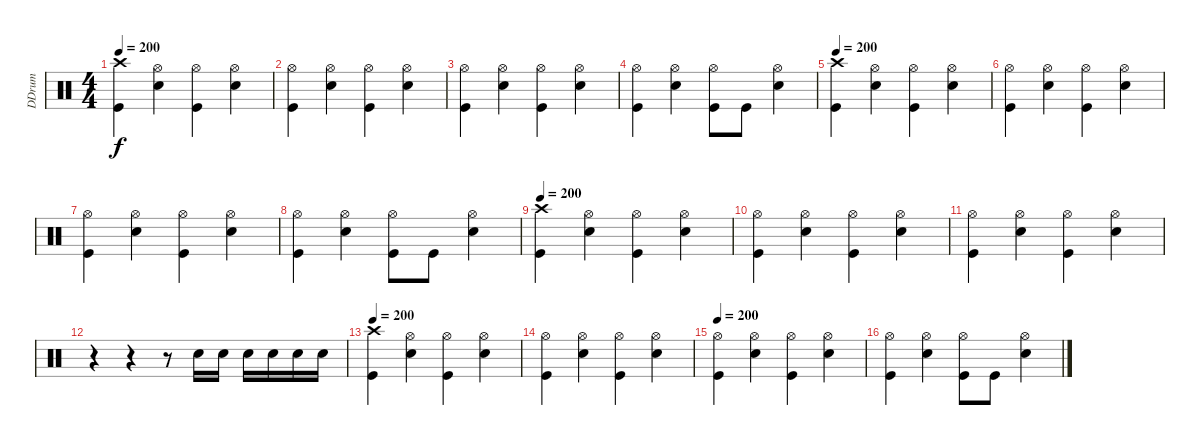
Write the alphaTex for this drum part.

\track ("DDrum" "DDrum") {instrument percussion}
\staff {score}
\articulation defaults
\ts (4 4)
\tempo 200
\clef neutral
\ks c
("Crash high (hit)" "Kick (hit)").4{dy f} ("Hi-Hat (open)" "Electric Snare (hit)").4 ("Hi-Hat (open)" "Kick (hit)").4 ("Hi-Hat (open)" "Electric Snare (hit)").4 |
("Hi-Hat (open)" "Kick (hit)").4 ("Hi-Hat (open)" "Electric Snare (hit)").4 ("Hi-Hat (open)" "Kick (hit)").4 ("Hi-Hat (open)" "Electric Snare (hit)").4 |
("Hi-Hat (open)" "Kick (hit)").4 ("Hi-Hat (open)" "Electric Snare (hit)").4 ("Hi-Hat (open)" "Kick (hit)").4 ("Hi-Hat (open)" "Electric Snare (hit)").4 |
("Hi-Hat (open)" "Kick (hit)").4 ("Hi-Hat (open)" "Electric Snare (hit)").4 ("Hi-Hat (open)" "Kick (hit)").8 "Kick (hit)".8 ("Hi-Hat (open)" "Electric Snare (hit)").4 |
\tempo 200
("Crash high (hit)" "Kick (hit)").4 ("Hi-Hat (open)" "Electric Snare (hit)").4 ("Hi-Hat (open)" "Kick (hit)").4 ("Hi-Hat (open)" "Electric Snare (hit)").4 |
("Hi-Hat (open)" "Kick (hit)").4 ("Hi-Hat (open)" "Electric Snare (hit)").4 ("Hi-Hat (open)" "Kick (hit)").4 ("Hi-Hat (open)" "Electric Snare (hit)").4 |
("Hi-Hat (open)" "Kick (hit)").4 ("Hi-Hat (open)" "Electric Snare (hit)").4 ("Hi-Hat (open)" "Kick (hit)").4 ("Hi-Hat (open)" "Electric Snare (hit)").4 |
("Hi-Hat (open)" "Kick (hit)").4 ("Hi-Hat (open)" "Electric Snare (hit)").4 ("Hi-Hat (open)" "Kick (hit)").8 "Kick (hit)".8 ("Hi-Hat (open)" "Electric Snare (hit)").4 |
\tempo 200
("Crash high (hit)" "Kick (hit)").4 ("Hi-Hat (open)" "Electric Snare (hit)").4 ("Hi-Hat (open)" "Kick (hit)").4 ("Hi-Hat (open)" "Electric Snare (hit)").4 |
("Hi-Hat (open)" "Kick (hit)").4 ("Hi-Hat (open)" "Electric Snare (hit)").4 ("Hi-Hat (open)" "Kick (hit)").4 ("Hi-Hat (open)" "Electric Snare (hit)").4 |
("Hi-Hat (open)" "Kick (hit)").4 ("Hi-Hat (open)" "Electric Snare (hit)").4 ("Hi-Hat (open)" "Kick (hit)").4 ("Hi-Hat (open)" "Electric Snare (hit)").4 |
r.4 r.4 r.8 "Electric Snare (hit)".16 "Electric Snare (hit)".16 "Electric Snare (hit)".16 "Electric Snare (hit)".16 "Electric Snare (hit)".16 "Electric Snare (hit)".16 |
\tempo 200
("Crash high (hit)" "Kick (hit)").4 ("Hi-Hat (open)" "Electric Snare (hit)").4 ("Hi-Hat (open)" "Kick (hit)").4 ("Hi-Hat (open)" "Electric Snare (hit)").4 |
("Hi-Hat (open)" "Kick (hit)").4 ("Hi-Hat (open)" "Electric Snare (hit)").4 ("Hi-Hat (open)" "Kick (hit)").4 ("Hi-Hat (open)" "Electric Snare (hit)").4 |
\tempo 200
("Hi-Hat (open)" "Kick (hit)").4 ("Hi-Hat (open)" "Electric Snare (hit)").4 ("Hi-Hat (open)" "Kick (hit)").4 ("Hi-Hat (open)" "Electric Snare (hit)").4 |
("Hi-Hat (open)" "Kick (hit)").4 ("Hi-Hat (open)" "Electric Snare (hit)").4 ("Hi-Hat (open)" "Kick (hit)").8 "Kick (hit)".8 ("Hi-Hat (open)" "Electric Snare (hit)").4
